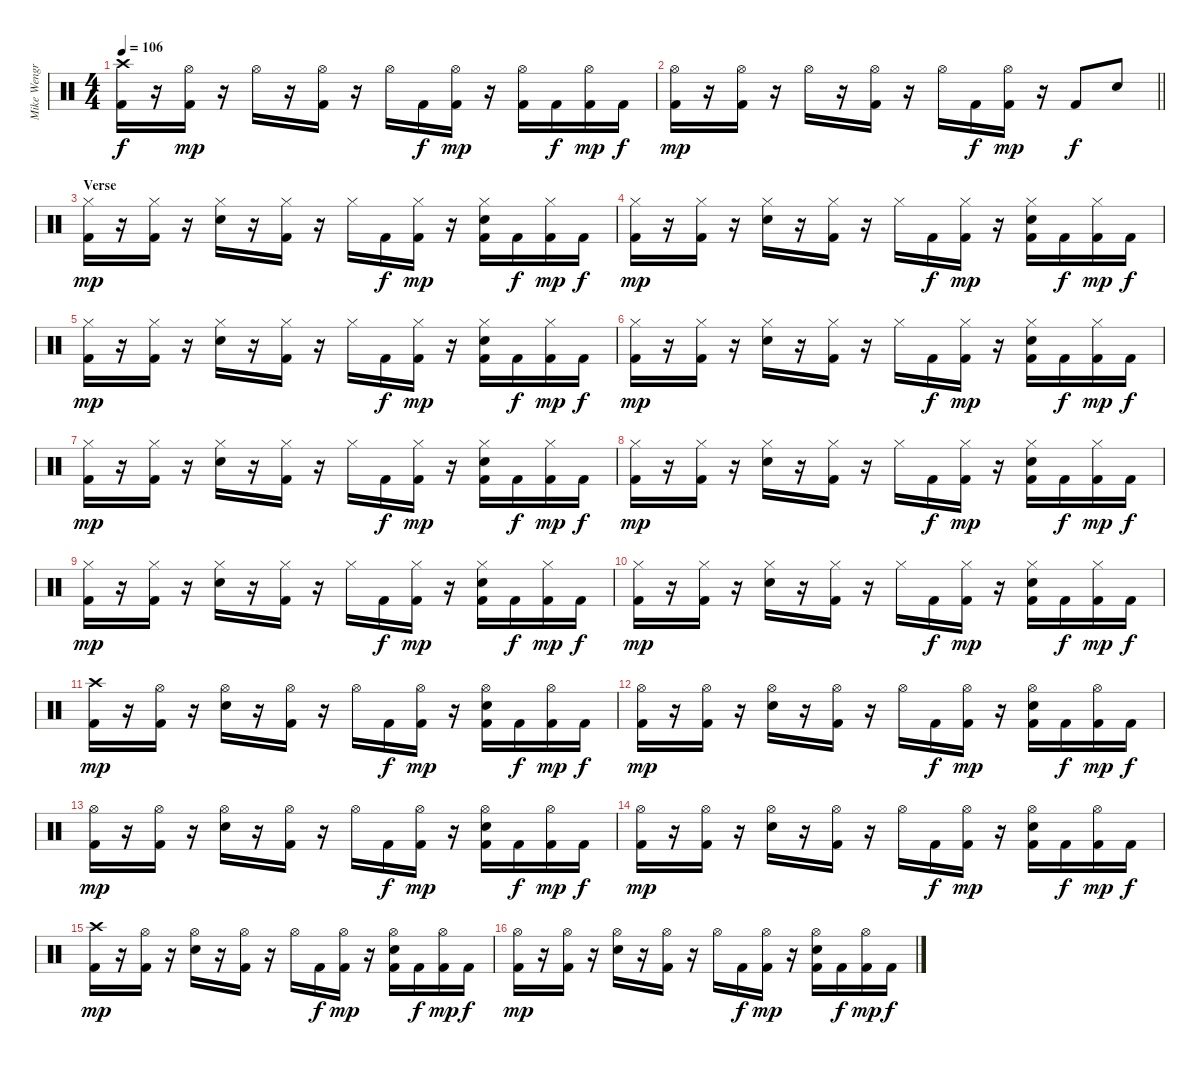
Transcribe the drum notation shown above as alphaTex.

\track ("Mike Wengren" "Mike Wengr") {instrument percussion}
\staff {score}
\articulation defaults
\ts (4 4)
\tempo 106
\clef neutral
\ks c
("Crash high (hit)" "Kick (hit) 2").16{dy f} r.16 ("Hi-Hat (open)" "Kick (hit) 2").16{dy mp} r.16 "Hi-Hat (open)".16 r.16 ("Hi-Hat (open)" "Kick (hit) 2").16 r.16 "Hi-Hat (open)".16 "Kick (hit) 2".16{dy f} ("Hi-Hat (open)" "Kick (hit) 2").16{dy mp} r.16 ("Hi-Hat (open)" "Kick (hit) 2").16 "Kick (hit) 2".16{dy f} ("Hi-Hat (open)" "Kick (hit) 2").16{dy mp} "Kick (hit) 2".16{dy f} |
\barLineRight lightlight
("Hi-Hat (open)" "Kick (hit) 2").16{dy mp} r.16 ("Hi-Hat (open)" "Kick (hit) 2").16 r.16 "Hi-Hat (open)".16 r.16 ("Hi-Hat (open)" "Kick (hit) 2").16 r.16 "Hi-Hat (open)".16 "Kick (hit) 2".16{dy f} ("Hi-Hat (open)" "Kick (hit) 2").16{dy mp} r.16 "Kick (hit) 2".8{dy f} "Snare (hit) 2".8 |
\section ("" "Verse")
("Hi-Hat (closed)" "Kick (hit) 2").16{dy mp} r.16 ("Hi-Hat (closed)" "Kick (hit) 2").16 r.16 ("Hi-Hat (closed)" "Snare (hit) 2").16 r.16 ("Hi-Hat (closed)" "Kick (hit) 2").16 r.16 "Hi-Hat (closed)".16 "Kick (hit) 2".16{dy f} ("Hi-Hat (closed)" "Kick (hit) 2").16{dy mp} r.16 ("Hi-Hat (closed)" "Snare (hit) 2" "Kick (hit) 2").16 "Kick (hit) 2".16{dy f} ("Hi-Hat (closed)" "Kick (hit) 2").16{dy mp} "Kick (hit) 2".16{dy f} |
("Hi-Hat (closed)" "Kick (hit) 2").16{dy mp} r.16 ("Hi-Hat (closed)" "Kick (hit) 2").16 r.16 ("Hi-Hat (closed)" "Snare (hit) 2").16 r.16 ("Hi-Hat (closed)" "Kick (hit) 2").16 r.16 "Hi-Hat (closed)".16 "Kick (hit) 2".16{dy f} ("Hi-Hat (closed)" "Kick (hit) 2").16{dy mp} r.16 ("Hi-Hat (closed)" "Snare (hit) 2" "Kick (hit) 2").16 "Kick (hit) 2".16{dy f} ("Hi-Hat (closed)" "Kick (hit) 2").16{dy mp} "Kick (hit) 2".16{dy f} |
("Hi-Hat (closed)" "Kick (hit) 2").16{dy mp} r.16 ("Hi-Hat (closed)" "Kick (hit) 2").16 r.16 ("Hi-Hat (closed)" "Snare (hit) 2").16 r.16 ("Hi-Hat (closed)" "Kick (hit) 2").16 r.16 "Hi-Hat (closed)".16 "Kick (hit) 2".16{dy f} ("Hi-Hat (closed)" "Kick (hit) 2").16{dy mp} r.16 ("Hi-Hat (closed)" "Snare (hit) 2" "Kick (hit) 2").16 "Kick (hit) 2".16{dy f} ("Hi-Hat (closed)" "Kick (hit) 2").16{dy mp} "Kick (hit) 2".16{dy f} |
("Hi-Hat (closed)" "Kick (hit) 2").16{dy mp} r.16 ("Hi-Hat (closed)" "Kick (hit) 2").16 r.16 ("Hi-Hat (closed)" "Snare (hit) 2").16 r.16 ("Hi-Hat (closed)" "Kick (hit) 2").16 r.16 "Hi-Hat (closed)".16 "Kick (hit) 2".16{dy f} ("Hi-Hat (closed)" "Kick (hit) 2").16{dy mp} r.16 ("Hi-Hat (closed)" "Snare (hit) 2" "Kick (hit) 2").16 "Kick (hit) 2".16{dy f} ("Hi-Hat (closed)" "Kick (hit) 2").16{dy mp} "Kick (hit) 2".16{dy f} |
("Hi-Hat (closed)" "Kick (hit) 2").16{dy mp} r.16 ("Hi-Hat (closed)" "Kick (hit) 2").16 r.16 ("Hi-Hat (closed)" "Snare (hit) 2").16 r.16 ("Hi-Hat (closed)" "Kick (hit) 2").16 r.16 "Hi-Hat (closed)".16 "Kick (hit) 2".16{dy f} ("Hi-Hat (closed)" "Kick (hit) 2").16{dy mp} r.16 ("Hi-Hat (closed)" "Snare (hit) 2" "Kick (hit) 2").16 "Kick (hit) 2".16{dy f} ("Hi-Hat (closed)" "Kick (hit) 2").16{dy mp} "Kick (hit) 2".16{dy f} |
("Hi-Hat (closed)" "Kick (hit) 2").16{dy mp} r.16 ("Hi-Hat (closed)" "Kick (hit) 2").16 r.16 ("Hi-Hat (closed)" "Snare (hit) 2").16 r.16 ("Hi-Hat (closed)" "Kick (hit) 2").16 r.16 "Hi-Hat (closed)".16 "Kick (hit) 2".16{dy f} ("Hi-Hat (closed)" "Kick (hit) 2").16{dy mp} r.16 ("Hi-Hat (closed)" "Snare (hit) 2" "Kick (hit) 2").16 "Kick (hit) 2".16{dy f} ("Hi-Hat (closed)" "Kick (hit) 2").16{dy mp} "Kick (hit) 2".16{dy f} |
("Hi-Hat (closed)" "Kick (hit) 2").16{dy mp} r.16 ("Hi-Hat (closed)" "Kick (hit) 2").16 r.16 ("Hi-Hat (closed)" "Snare (hit) 2").16 r.16 ("Hi-Hat (closed)" "Kick (hit) 2").16 r.16 "Hi-Hat (closed)".16 "Kick (hit) 2".16{dy f} ("Hi-Hat (closed)" "Kick (hit) 2").16{dy mp} r.16 ("Hi-Hat (closed)" "Snare (hit) 2" "Kick (hit) 2").16 "Kick (hit) 2".16{dy f} ("Hi-Hat (closed)" "Kick (hit) 2").16{dy mp} "Kick (hit) 2".16{dy f} |
("Hi-Hat (closed)" "Kick (hit) 2").16{dy mp} r.16 ("Hi-Hat (closed)" "Kick (hit) 2").16 r.16 ("Hi-Hat (closed)" "Snare (hit) 2").16 r.16 ("Hi-Hat (closed)" "Kick (hit) 2").16 r.16 "Hi-Hat (closed)".16 "Kick (hit) 2".16{dy f} ("Hi-Hat (closed)" "Kick (hit) 2").16{dy mp} r.16 ("Hi-Hat (closed)" "Snare (hit) 2" "Kick (hit) 2").16 "Kick (hit) 2".16{dy f} ("Hi-Hat (closed)" "Kick (hit) 2").16{dy mp} "Kick (hit) 2".16{dy f} |
("Crash high (hit)" "Kick (hit) 2").16{dy mp} r.16 ("Hi-Hat (open)" "Kick (hit) 2").16 r.16 ("Hi-Hat (open)" "Snare (hit) 2").16 r.16 ("Hi-Hat (open)" "Kick (hit) 2").16 r.16 "Hi-Hat (open)".16 "Kick (hit) 2".16{dy f} ("Hi-Hat (open)" "Kick (hit) 2").16{dy mp} r.16 ("Hi-Hat (open)" "Snare (hit) 2" "Kick (hit) 2").16 "Kick (hit) 2".16{dy f} ("Hi-Hat (open)" "Kick (hit) 2").16{dy mp} "Kick (hit) 2".16{dy f} |
("Hi-Hat (open)" "Kick (hit) 2").16{dy mp} r.16 ("Hi-Hat (open)" "Kick (hit) 2").16 r.16 ("Hi-Hat (open)" "Snare (hit) 2").16 r.16 ("Hi-Hat (open)" "Kick (hit) 2").16 r.16 "Hi-Hat (open)".16 "Kick (hit) 2".16{dy f} ("Hi-Hat (open)" "Kick (hit) 2").16{dy mp} r.16 ("Hi-Hat (open)" "Snare (hit) 2" "Kick (hit) 2").16 "Kick (hit) 2".16{dy f} ("Hi-Hat (open)" "Kick (hit) 2").16{dy mp} "Kick (hit) 2".16{dy f} |
("Hi-Hat (open)" "Kick (hit) 2").16{dy mp} r.16 ("Hi-Hat (open)" "Kick (hit) 2").16 r.16 ("Hi-Hat (open)" "Snare (hit) 2").16 r.16 ("Hi-Hat (open)" "Kick (hit) 2").16 r.16 "Hi-Hat (open)".16 "Kick (hit) 2".16{dy f} ("Hi-Hat (open)" "Kick (hit) 2").16{dy mp} r.16 ("Hi-Hat (open)" "Snare (hit) 2" "Kick (hit) 2").16 "Kick (hit) 2".16{dy f} ("Hi-Hat (open)" "Kick (hit) 2").16{dy mp} "Kick (hit) 2".16{dy f} |
("Hi-Hat (open)" "Kick (hit) 2").16{dy mp} r.16 ("Hi-Hat (open)" "Kick (hit) 2").16 r.16 ("Hi-Hat (open)" "Snare (hit) 2").16 r.16 ("Hi-Hat (open)" "Kick (hit) 2").16 r.16 "Hi-Hat (open)".16 "Kick (hit) 2".16{dy f} ("Hi-Hat (open)" "Kick (hit) 2").16{dy mp} r.16 ("Hi-Hat (open)" "Snare (hit) 2" "Kick (hit) 2").16 "Kick (hit) 2".16{dy f} ("Hi-Hat (open)" "Kick (hit) 2").16{dy mp} "Kick (hit) 2".16{dy f} |
("Crash high (hit)" "Kick (hit) 2").16{dy mp} r.16 ("Hi-Hat (open)" "Kick (hit) 2").16 r.16 ("Hi-Hat (open)" "Snare (hit) 2").16 r.16 ("Hi-Hat (open)" "Kick (hit) 2").16 r.16 "Hi-Hat (open)".16 "Kick (hit) 2".16{dy f} ("Hi-Hat (open)" "Kick (hit) 2").16{dy mp} r.16 ("Hi-Hat (open)" "Snare (hit) 2" "Kick (hit) 2").16 "Kick (hit) 2".16{dy f} ("Hi-Hat (open)" "Kick (hit) 2").16{dy mp} "Kick (hit) 2".16{dy f} |
("Hi-Hat (open)" "Kick (hit) 2").16{dy mp} r.16 ("Hi-Hat (open)" "Kick (hit) 2").16 r.16 ("Hi-Hat (open)" "Snare (hit) 2").16 r.16 ("Hi-Hat (open)" "Kick (hit) 2").16 r.16 "Hi-Hat (open)".16 "Kick (hit) 2".16{dy f} ("Hi-Hat (open)" "Kick (hit) 2").16{dy mp} r.16 ("Hi-Hat (open)" "Snare (hit) 2" "Kick (hit) 2").16 "Kick (hit) 2".16{dy f} ("Hi-Hat (open)" "Kick (hit) 2").16{dy mp} "Kick (hit) 2".16{dy f}
